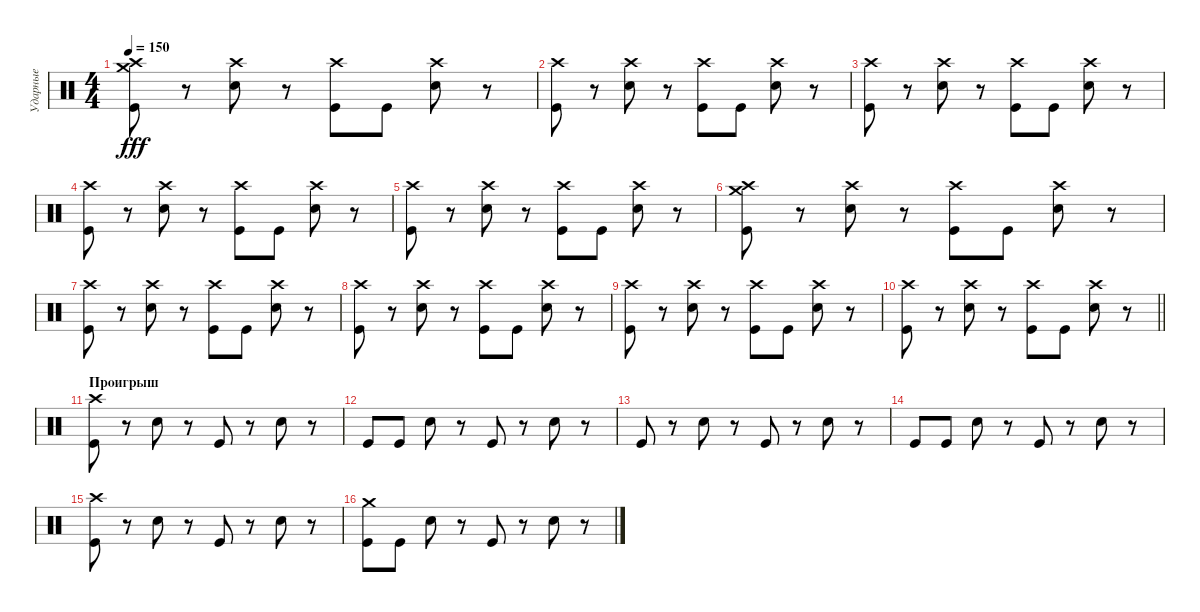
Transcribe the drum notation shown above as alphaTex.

\track ("Ударные" "Ударные") {instrument percussion}
\staff {score}
\articulation defaults
\ts (4 4)
\tempo 150
\clef neutral
\ks c
("Crash medium (hit)" "Kick (hit)" "Crash high (hit)").8{dy fff} r.8 ("Crash high (hit)" "Electric Snare (hit)").8 r.8 ("Crash high (hit)" "Kick (hit)").8 "Kick (hit)".8 ("Crash high (hit)" "Electric Snare (hit)").8 r.8 |
("Crash high (hit)" "Kick (hit)").8 r.8 ("Crash high (hit)" "Electric Snare (hit)").8 r.8 ("Crash high (hit)" "Kick (hit)").8 "Kick (hit)".8 ("Crash high (hit)" "Electric Snare (hit)").8 r.8 |
("Crash high (hit)" "Kick (hit)").8 r.8 ("Crash high (hit)" "Electric Snare (hit)").8 r.8 ("Crash high (hit)" "Kick (hit)").8 "Kick (hit)".8 ("Crash high (hit)" "Electric Snare (hit)").8 r.8 |
("Crash high (hit)" "Kick (hit)").8 r.8 ("Crash high (hit)" "Electric Snare (hit)").8 r.8 ("Crash high (hit)" "Kick (hit)").8 "Kick (hit)".8 ("Crash high (hit)" "Electric Snare (hit)").8 r.8 |
("Crash high (hit)" "Kick (hit)").8 r.8 ("Crash high (hit)" "Electric Snare (hit)").8 r.8 ("Crash high (hit)" "Kick (hit)").8 "Kick (hit)".8 ("Crash high (hit)" "Electric Snare (hit)").8 r.8 |
("Crash medium (hit)" "Kick (hit)" "Crash high (hit)").8 r.8 ("Crash high (hit)" "Electric Snare (hit)").8 r.8 ("Crash high (hit)" "Kick (hit)").8 "Kick (hit)".8 ("Crash high (hit)" "Electric Snare (hit)").8 r.8 |
("Crash high (hit)" "Kick (hit)").8 r.8 ("Crash high (hit)" "Electric Snare (hit)").8 r.8 ("Crash high (hit)" "Kick (hit)").8 "Kick (hit)".8 ("Crash high (hit)" "Electric Snare (hit)").8 r.8 |
("Crash high (hit)" "Kick (hit)").8 r.8 ("Crash high (hit)" "Electric Snare (hit)").8 r.8 ("Crash high (hit)" "Kick (hit)").8 "Kick (hit)".8 ("Crash high (hit)" "Electric Snare (hit)").8 r.8 |
("Crash high (hit)" "Kick (hit)").8 r.8 ("Crash high (hit)" "Electric Snare (hit)").8 r.8 ("Crash high (hit)" "Kick (hit)").8 "Kick (hit)".8 ("Crash high (hit)" "Electric Snare (hit)").8 r.8 |
\barLineRight lightlight
("Crash high (hit)" "Kick (hit)").8 r.8 ("Crash high (hit)" "Electric Snare (hit)").8 r.8 ("Crash high (hit)" "Kick (hit)").8 "Kick (hit)".8 ("Crash high (hit)" "Electric Snare (hit)").8 r.8 |
\section ("" "Проигрыш")
("Crash high (hit)" "Kick (hit)").8 r.8 "Electric Snare (hit)".8 r.8 "Kick (hit)".8 r.8 "Electric Snare (hit)".8 r.8 |
"Kick (hit)".8 "Kick (hit)".8 "Electric Snare (hit)".8 r.8 "Kick (hit)".8 r.8 "Electric Snare (hit)".8 r.8 |
"Kick (hit)".8 r.8 "Electric Snare (hit)".8 r.8 "Kick (hit)".8 r.8 "Electric Snare (hit)".8 r.8 |
"Kick (hit)".8 "Kick (hit)".8 "Electric Snare (hit)".8 r.8 "Kick (hit)".8 r.8 "Electric Snare (hit)".8 r.8 |
("Crash high (hit)" "Kick (hit)").8 r.8 "Electric Snare (hit)".8 r.8 "Kick (hit)".8 r.8 "Electric Snare (hit)".8 r.8 |
("Crash medium (hit)" "Kick (hit)").8 "Kick (hit)".8 "Electric Snare (hit)".8 r.8 "Kick (hit)".8 r.8 "Electric Snare (hit)".8 r.8
